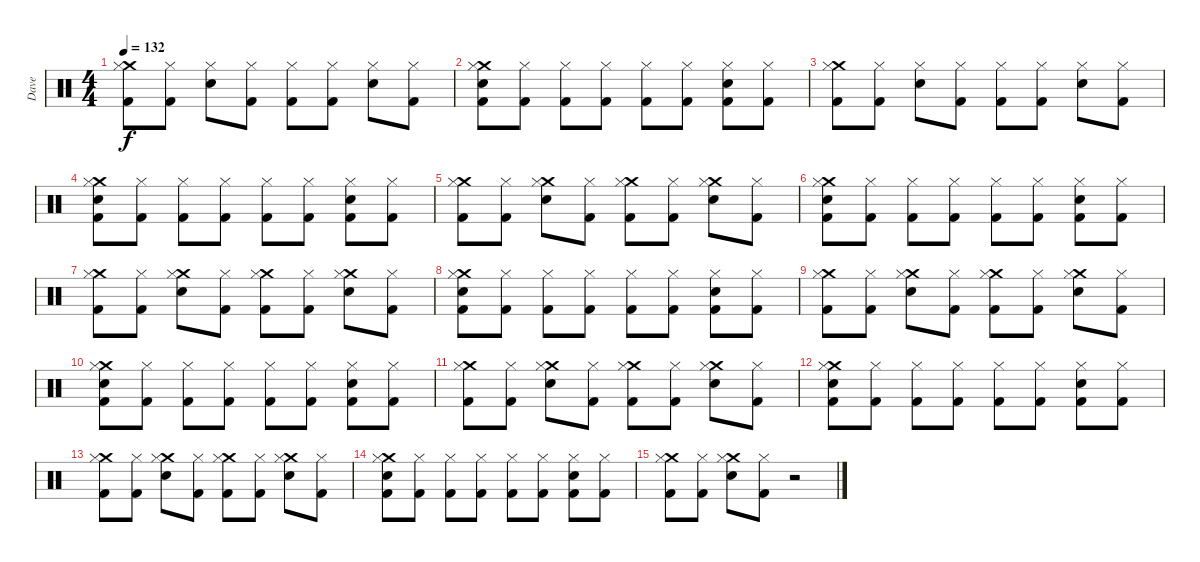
\track ("Dave" "Dave") {instrument percussion}
\staff {score}
\articulation defaults
\ts (4 4)
\tempo 132
\clef neutral
\ks c
("Crash medium (hit)" "Hi-Hat (closed)" "Kick (hit) 2").8{dy f} ("Hi-Hat (closed)" "Kick (hit) 2").8 ("Hi-Hat (closed)" "Electric Snare (hit)").8 ("Hi-Hat (closed)" "Kick (hit) 2").8 ("Hi-Hat (closed)" "Kick (hit) 2").8 ("Hi-Hat (closed)" "Kick (hit) 2").8 ("Hi-Hat (closed)" "Electric Snare (hit)").8 ("Hi-Hat (closed)" "Kick (hit) 2").8 |
("Crash medium (hit)" "Hi-Hat (closed)" "Kick (hit) 2" "Electric Snare (hit)").8 ("Hi-Hat (closed)" "Kick (hit) 2").8 ("Hi-Hat (closed)" "Kick (hit) 2").8 ("Hi-Hat (closed)" "Kick (hit) 2").8 ("Hi-Hat (closed)" "Kick (hit) 2").8 ("Hi-Hat (closed)" "Kick (hit) 2").8 ("Hi-Hat (closed)" "Kick (hit) 2" "Electric Snare (hit)").8 ("Hi-Hat (closed)" "Kick (hit) 2").8 |
("Crash medium (hit)" "Hi-Hat (closed)" "Kick (hit) 2").8 ("Hi-Hat (closed)" "Kick (hit) 2").8 ("Hi-Hat (closed)" "Electric Snare (hit)").8 ("Hi-Hat (closed)" "Kick (hit) 2").8 ("Hi-Hat (closed)" "Kick (hit) 2").8 ("Hi-Hat (closed)" "Kick (hit) 2").8 ("Hi-Hat (closed)" "Electric Snare (hit)").8 ("Hi-Hat (closed)" "Kick (hit) 2").8 |
("Crash medium (hit)" "Hi-Hat (closed)" "Kick (hit) 2" "Electric Snare (hit)").8 ("Hi-Hat (closed)" "Kick (hit) 2").8 ("Hi-Hat (closed)" "Kick (hit) 2").8 ("Hi-Hat (closed)" "Kick (hit) 2").8 ("Hi-Hat (closed)" "Kick (hit) 2").8 ("Hi-Hat (closed)" "Kick (hit) 2").8 ("Hi-Hat (closed)" "Kick (hit) 2" "Electric Snare (hit)").8 ("Hi-Hat (closed)" "Kick (hit) 2").8 |
("Crash medium (hit)" "Hi-Hat (closed)" "Kick (hit) 2").8 ("Hi-Hat (closed)" "Kick (hit) 2").8 ("Crash medium (hit)" "Hi-Hat (closed)" "Electric Snare (hit)").8 ("Hi-Hat (closed)" "Kick (hit) 2").8 ("Crash medium (hit)" "Hi-Hat (closed)" "Kick (hit) 2").8 ("Hi-Hat (closed)" "Kick (hit) 2").8 ("Crash medium (hit)" "Hi-Hat (closed)" "Electric Snare (hit)").8 ("Hi-Hat (closed)" "Kick (hit) 2").8 |
("Crash medium (hit)" "Hi-Hat (closed)" "Kick (hit) 2" "Electric Snare (hit)").8 ("Hi-Hat (closed)" "Kick (hit) 2").8 ("Hi-Hat (closed)" "Kick (hit) 2").8 ("Hi-Hat (closed)" "Kick (hit) 2").8 ("Hi-Hat (closed)" "Kick (hit) 2").8 ("Hi-Hat (closed)" "Kick (hit) 2").8 ("Hi-Hat (closed)" "Kick (hit) 2" "Electric Snare (hit)").8 ("Hi-Hat (closed)" "Kick (hit) 2").8 |
("Crash medium (hit)" "Hi-Hat (closed)" "Kick (hit) 2").8 ("Hi-Hat (closed)" "Kick (hit) 2").8 ("Crash medium (hit)" "Hi-Hat (closed)" "Electric Snare (hit)").8 ("Hi-Hat (closed)" "Kick (hit) 2").8 ("Crash medium (hit)" "Hi-Hat (closed)" "Kick (hit) 2").8 ("Hi-Hat (closed)" "Kick (hit) 2").8 ("Crash medium (hit)" "Hi-Hat (closed)" "Electric Snare (hit)").8 ("Hi-Hat (closed)" "Kick (hit) 2").8 |
("Crash medium (hit)" "Hi-Hat (closed)" "Kick (hit) 2" "Electric Snare (hit)").8 ("Hi-Hat (closed)" "Kick (hit) 2").8 ("Hi-Hat (closed)" "Kick (hit) 2").8 ("Hi-Hat (closed)" "Kick (hit) 2").8 ("Hi-Hat (closed)" "Kick (hit) 2").8 ("Hi-Hat (closed)" "Kick (hit) 2").8 ("Hi-Hat (closed)" "Kick (hit) 2" "Electric Snare (hit)").8 ("Hi-Hat (closed)" "Kick (hit) 2").8 |
("Crash medium (hit)" "Hi-Hat (closed)" "Kick (hit) 2").8 ("Hi-Hat (closed)" "Kick (hit) 2").8 ("Crash medium (hit)" "Hi-Hat (closed)" "Electric Snare (hit)").8 ("Hi-Hat (closed)" "Kick (hit) 2").8 ("Crash medium (hit)" "Hi-Hat (closed)" "Kick (hit) 2").8 ("Hi-Hat (closed)" "Kick (hit) 2").8 ("Crash medium (hit)" "Hi-Hat (closed)" "Electric Snare (hit)").8 ("Hi-Hat (closed)" "Kick (hit) 2").8 |
("Crash medium (hit)" "Hi-Hat (closed)" "Kick (hit) 2" "Electric Snare (hit)").8 ("Hi-Hat (closed)" "Kick (hit) 2").8 ("Hi-Hat (closed)" "Kick (hit) 2").8 ("Hi-Hat (closed)" "Kick (hit) 2").8 ("Hi-Hat (closed)" "Kick (hit) 2").8 ("Hi-Hat (closed)" "Kick (hit) 2").8 ("Hi-Hat (closed)" "Kick (hit) 2" "Electric Snare (hit)").8 ("Hi-Hat (closed)" "Kick (hit) 2").8 |
("Crash medium (hit)" "Hi-Hat (closed)" "Kick (hit) 2").8 ("Hi-Hat (closed)" "Kick (hit) 2").8 ("Crash medium (hit)" "Hi-Hat (closed)" "Electric Snare (hit)").8 ("Hi-Hat (closed)" "Kick (hit) 2").8 ("Crash medium (hit)" "Hi-Hat (closed)" "Kick (hit) 2").8 ("Hi-Hat (closed)" "Kick (hit) 2").8 ("Crash medium (hit)" "Hi-Hat (closed)" "Electric Snare (hit)").8 ("Hi-Hat (closed)" "Kick (hit) 2").8 |
("Crash medium (hit)" "Hi-Hat (closed)" "Kick (hit) 2" "Electric Snare (hit)").8 ("Hi-Hat (closed)" "Kick (hit) 2").8 ("Hi-Hat (closed)" "Kick (hit) 2").8 ("Hi-Hat (closed)" "Kick (hit) 2").8 ("Hi-Hat (closed)" "Kick (hit) 2").8 ("Hi-Hat (closed)" "Kick (hit) 2").8 ("Hi-Hat (closed)" "Kick (hit) 2" "Electric Snare (hit)").8 ("Hi-Hat (closed)" "Kick (hit) 2").8 |
("Crash medium (hit)" "Hi-Hat (closed)" "Kick (hit) 2").8 ("Hi-Hat (closed)" "Kick (hit) 2").8 ("Crash medium (hit)" "Hi-Hat (closed)" "Electric Snare (hit)").8 ("Hi-Hat (closed)" "Kick (hit) 2").8 ("Crash medium (hit)" "Hi-Hat (closed)" "Kick (hit) 2").8{volume 4} ("Hi-Hat (closed)" "Kick (hit) 2").8 ("Crash medium (hit)" "Hi-Hat (closed)" "Electric Snare (hit)").8 ("Hi-Hat (closed)" "Kick (hit) 2").8 |
("Crash medium (hit)" "Hi-Hat (closed)" "Kick (hit) 2" "Electric Snare (hit)").8 ("Hi-Hat (closed)" "Kick (hit) 2").8 ("Hi-Hat (closed)" "Kick (hit) 2").8 ("Hi-Hat (closed)" "Kick (hit) 2").8 ("Hi-Hat (closed)" "Kick (hit) 2").8 ("Hi-Hat (closed)" "Kick (hit) 2").8 ("Hi-Hat (closed)" "Kick (hit) 2" "Electric Snare (hit)").8 ("Hi-Hat (closed)" "Kick (hit) 2").8 |
("Crash medium (hit)" "Hi-Hat (closed)" "Kick (hit) 2").8 ("Hi-Hat (closed)" "Kick (hit) 2").8 ("Crash medium (hit)" "Hi-Hat (closed)" "Electric Snare (hit)").8 ("Hi-Hat (closed)" "Kick (hit) 2").8 r.2
